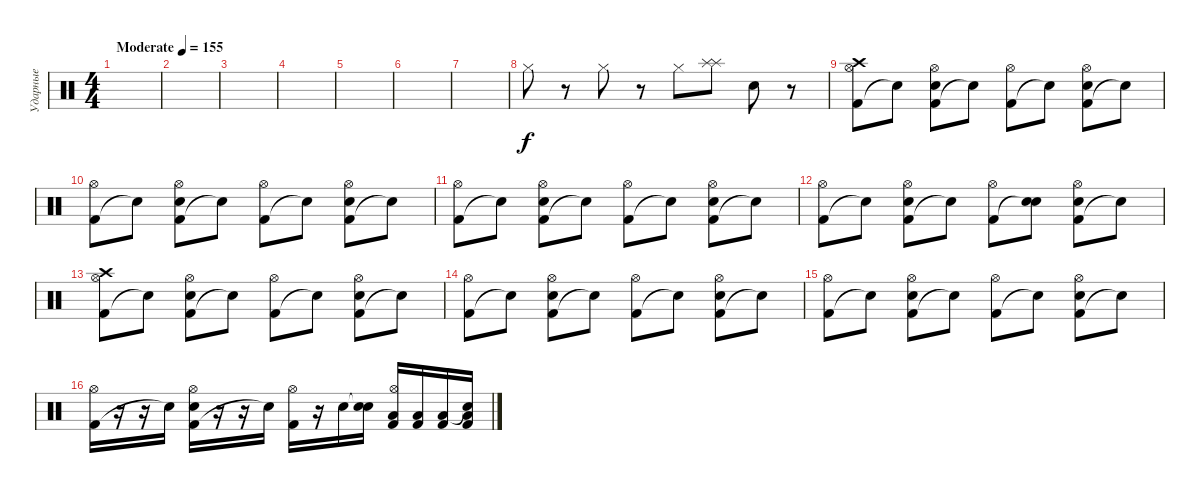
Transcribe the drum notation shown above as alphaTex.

\track ("Ударные" "Ударные") {instrument percussion}
\staff {score}
\articulation defaults
\ts (4 4)
\tempo (155 "Moderate")
\clef neutral
\ks c
|
|
|
|
|
|
|
"Hi-Hat (closed)".8 r.8 "Hi-Hat (closed)".8 r.8 "Hi-Hat (closed)".8 ("Splash (hit)" "Splash (hit)").8 "Snare (hit) 2".8 r.8 |
("Kick (hit) 2" "Hi-Hat (open)" "Crash high (hit)").8 "Snare (hit)"{t}.8 ("Kick (hit) 2" "Hi-Hat (open)" "Snare (hit) 2").8 "Snare (hit)"{t}.8 ("Kick (hit) 2" "Hi-Hat (open)").8 "Snare (hit)"{t}.8 ("Kick (hit) 2" "Hi-Hat (open)" "Snare (hit) 2").8 "Snare (hit)"{t}.8 |
("Kick (hit) 2" "Hi-Hat (open)").8 "Snare (hit)"{t}.8 ("Kick (hit) 2" "Hi-Hat (open)" "Snare (hit) 2").8 "Snare (hit)"{t}.8 ("Kick (hit) 2" "Hi-Hat (open)").8 "Snare (hit)"{t}.8 ("Kick (hit) 2" "Hi-Hat (open)" "Snare (hit) 2").8 "Snare (hit)"{t}.8 |
("Kick (hit) 2" "Hi-Hat (open)").8 "Snare (hit)"{t}.8 ("Kick (hit) 2" "Hi-Hat (open)" "Snare (hit) 2").8 "Snare (hit)"{t}.8 ("Kick (hit) 2" "Hi-Hat (open)").8 "Snare (hit)"{t}.8 ("Kick (hit) 2" "Hi-Hat (open)" "Snare (hit) 2").8 "Snare (hit)"{t}.8 |
("Kick (hit) 2" "Hi-Hat (open)").8 "Snare (hit)"{t}.8 ("Kick (hit) 2" "Hi-Hat (open)" "Snare (hit) 2").8 "Snare (hit)"{t}.8 ("Kick (hit) 2" "Hi-Hat (open)").8 ("Snare (hit)"{t} "Snare (hit) 2").8 ("Kick (hit) 2" "Hi-Hat (open)" "Snare (hit) 2").8 "Snare (hit)"{t}.8 |
("Kick (hit) 2" "Hi-Hat (open)" "Crash high (hit)").8 "Snare (hit)"{t}.8 ("Kick (hit) 2" "Hi-Hat (open)" "Snare (hit) 2").8 "Snare (hit)"{t}.8 ("Kick (hit) 2" "Hi-Hat (open)").8 "Snare (hit)"{t}.8 ("Kick (hit) 2" "Hi-Hat (open)" "Snare (hit) 2").8 "Snare (hit)"{t}.8 |
("Kick (hit) 2" "Hi-Hat (open)").8 "Snare (hit)"{t}.8 ("Kick (hit) 2" "Hi-Hat (open)" "Snare (hit) 2").8 "Snare (hit)"{t}.8 ("Kick (hit) 2" "Hi-Hat (open)").8 "Snare (hit)"{t}.8 ("Kick (hit) 2" "Hi-Hat (open)" "Snare (hit) 2").8 "Snare (hit)"{t}.8 |
("Kick (hit) 2" "Hi-Hat (open)").8 "Snare (hit)"{t}.8 ("Kick (hit) 2" "Hi-Hat (open)" "Snare (hit) 2").8 "Snare (hit)"{t}.8 ("Kick (hit) 2" "Hi-Hat (open)").8 "Snare (hit)"{t}.8 ("Kick (hit) 2" "Hi-Hat (open)" "Snare (hit) 2").8 "Snare (hit)"{t}.8 |
("Kick (hit) 2" "Hi-Hat (open)").16 r.16 r.16 "Snare (hit)"{t}.16 ("Kick (hit) 2" "Hi-Hat (open)" "Snare (hit) 2").16 r.16 r.16 "Snare (hit)"{t}.16 ("Kick (hit) 2" "Hi-Hat (open)").16 r.16 "Snare (hit) 2".16 ("Snare (hit)"{t} "Snare (hit) 2").16 ("Kick (hit) 2" "Hi-Hat (open)" "Low Floor Tom (hit)").16 ("Kick (hit) 2" "Low Floor Tom (hit)").16 ("Kick (hit) 2" "Low Floor Tom (hit)").16 ("Kick (hit) 2" "Snare (hit)"{t} "Low Floor Tom (hit)").16
